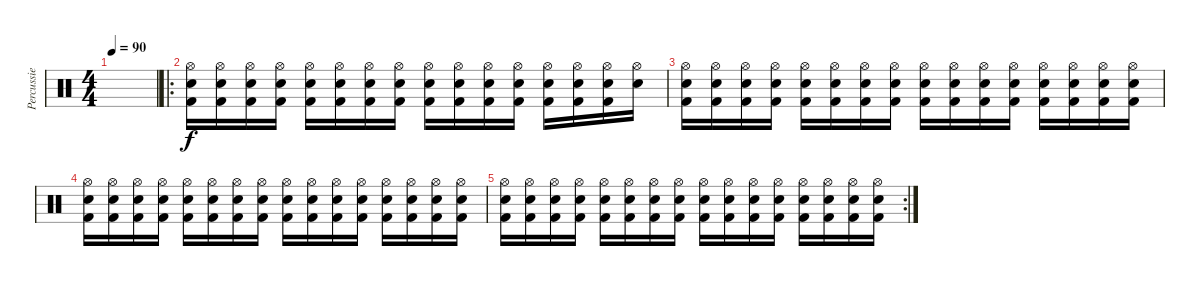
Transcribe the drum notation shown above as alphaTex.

\track ("Percussie" "Percussie") {instrument percussion}
\staff {score}
\articulation defaults
\ts (4 4)
\tempo 90
\clef neutral
\ks c
|
\ro
("Hi-Hat (open)" "Electric Snare (hit)" "Kick (hit) 2").16 ("Hi-Hat (open)" "Electric Snare (hit)" "Kick (hit) 2").16 ("Hi-Hat (open)" "Electric Snare (hit)" "Kick (hit) 2").16 ("Hi-Hat (open)" "Electric Snare (hit)" "Kick (hit) 2").16 ("Hi-Hat (open)" "Electric Snare (hit)" "Kick (hit) 2").16 ("Hi-Hat (open)" "Electric Snare (hit)" "Kick (hit) 2").16 ("Hi-Hat (open)" "Electric Snare (hit)" "Kick (hit) 2").16 ("Hi-Hat (open)" "Electric Snare (hit)" "Kick (hit) 2").16 ("Hi-Hat (open)" "Electric Snare (hit)" "Kick (hit) 2").16 ("Hi-Hat (open)" "Electric Snare (hit)" "Kick (hit) 2").16 ("Hi-Hat (open)" "Electric Snare (hit)" "Kick (hit) 2").16 ("Hi-Hat (open)" "Electric Snare (hit)" "Kick (hit) 2").16 ("Hi-Hat (open)" "Electric Snare (hit)" "Kick (hit) 2").16 ("Hi-Hat (open)" "Electric Snare (hit)" "Kick (hit) 2").16 ("Hi-Hat (open)" "Electric Snare (hit)" "Kick (hit) 2").16 ("Hi-Hat (open)" "Electric Snare (hit)").16 |
("Hi-Hat (open)" "Electric Snare (hit)" "Kick (hit) 2").16 ("Hi-Hat (open)" "Electric Snare (hit)" "Kick (hit) 2").16 ("Hi-Hat (open)" "Electric Snare (hit)" "Kick (hit) 2").16 ("Hi-Hat (open)" "Electric Snare (hit)" "Kick (hit) 2").16 ("Hi-Hat (open)" "Electric Snare (hit)" "Kick (hit) 2").16 ("Hi-Hat (open)" "Electric Snare (hit)" "Kick (hit) 2").16 ("Hi-Hat (open)" "Electric Snare (hit)" "Kick (hit) 2").16 ("Hi-Hat (open)" "Electric Snare (hit)" "Kick (hit) 2").16 ("Hi-Hat (open)" "Electric Snare (hit)" "Kick (hit) 2").16 ("Hi-Hat (open)" "Electric Snare (hit)" "Kick (hit) 2").16 ("Hi-Hat (open)" "Electric Snare (hit)" "Kick (hit) 2").16 ("Hi-Hat (open)" "Electric Snare (hit)" "Kick (hit) 2").16 ("Hi-Hat (open)" "Electric Snare (hit)" "Kick (hit) 2").16 ("Hi-Hat (open)" "Electric Snare (hit)" "Kick (hit) 2").16 ("Hi-Hat (open)" "Electric Snare (hit)" "Kick (hit) 2").16 ("Hi-Hat (open)" "Electric Snare (hit)" "Kick (hit) 2").16 |
("Hi-Hat (open)" "Electric Snare (hit)" "Kick (hit) 2").16 ("Hi-Hat (open)" "Electric Snare (hit)" "Kick (hit) 2").16 ("Hi-Hat (open)" "Electric Snare (hit)" "Kick (hit) 2").16 ("Hi-Hat (open)" "Electric Snare (hit)" "Kick (hit) 2").16 ("Hi-Hat (open)" "Electric Snare (hit)" "Kick (hit) 2").16 ("Hi-Hat (open)" "Electric Snare (hit)" "Kick (hit) 2").16 ("Hi-Hat (open)" "Electric Snare (hit)" "Kick (hit) 2").16 ("Hi-Hat (open)" "Electric Snare (hit)" "Kick (hit) 2").16 ("Hi-Hat (open)" "Electric Snare (hit)" "Kick (hit) 2").16 ("Hi-Hat (open)" "Electric Snare (hit)" "Kick (hit) 2").16 ("Hi-Hat (open)" "Electric Snare (hit)" "Kick (hit) 2").16 ("Hi-Hat (open)" "Electric Snare (hit)" "Kick (hit) 2").16 ("Hi-Hat (open)" "Electric Snare (hit)" "Kick (hit) 2").16 ("Hi-Hat (open)" "Electric Snare (hit)" "Kick (hit) 2").16 ("Hi-Hat (open)" "Electric Snare (hit)" "Kick (hit) 2").16 ("Hi-Hat (open)" "Electric Snare (hit)" "Kick (hit) 2").16 |
\rc 2
("Hi-Hat (open)" "Electric Snare (hit)" "Kick (hit) 2").16 ("Hi-Hat (open)" "Electric Snare (hit)" "Kick (hit) 2").16 ("Hi-Hat (open)" "Electric Snare (hit)" "Kick (hit) 2").16 ("Hi-Hat (open)" "Electric Snare (hit)" "Kick (hit) 2").16 ("Hi-Hat (open)" "Electric Snare (hit)" "Kick (hit) 2").16 ("Hi-Hat (open)" "Electric Snare (hit)" "Kick (hit) 2").16 ("Hi-Hat (open)" "Electric Snare (hit)" "Kick (hit) 2").16 ("Hi-Hat (open)" "Electric Snare (hit)" "Kick (hit) 2").16 ("Hi-Hat (open)" "Electric Snare (hit)" "Kick (hit) 2").16 ("Hi-Hat (open)" "Electric Snare (hit)" "Kick (hit) 2").16 ("Hi-Hat (open)" "Electric Snare (hit)" "Kick (hit) 2").16 ("Hi-Hat (open)" "Electric Snare (hit)" "Kick (hit) 2").16 ("Hi-Hat (open)" "Electric Snare (hit)" "Kick (hit) 2").16 ("Hi-Hat (open)" "Electric Snare (hit)" "Kick (hit) 2").16 ("Hi-Hat (open)" "Electric Snare (hit)" "Kick (hit) 2").16 ("Hi-Hat (open)" "Electric Snare (hit)" "Kick (hit) 2").16
